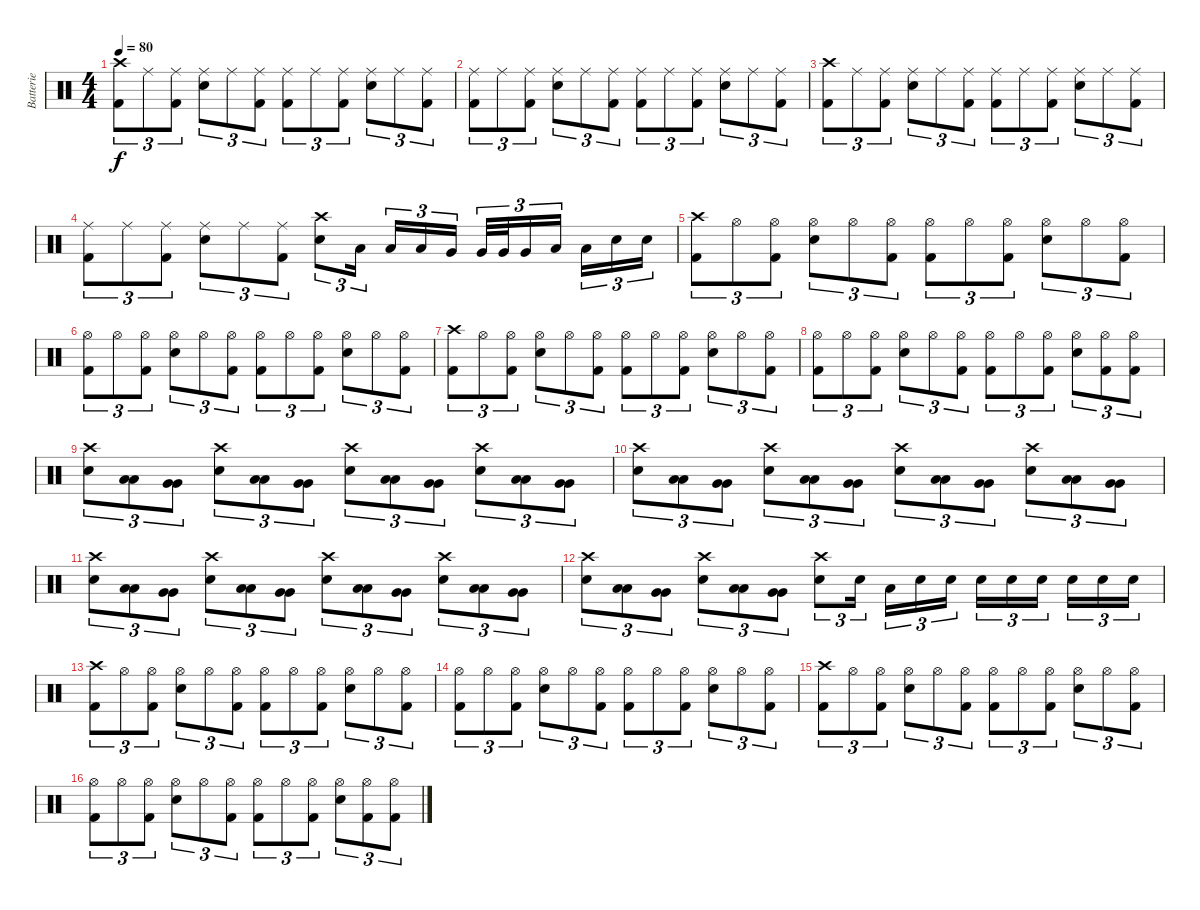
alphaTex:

\track ("Batterie" "Batterie") {instrument percussion}
\staff {score}
\articulation defaults
\ts (4 4)
\tempo 80
\clef neutral
\ks c
("Crash high (hit)" "Kick (hit) 2").8{tu (3 2) dy f} "Ride (middle)".8{tu (3 2)} ("Ride (middle)" "Kick (hit) 2").8{tu (3 2)} ("Ride (middle)" "Electric Snare (hit)").8{tu (3 2)} "Ride (middle)".8{tu (3 2)} ("Ride (middle)" "Kick (hit) 2").8{tu (3 2)} ("Ride (middle)" "Kick (hit) 2").8{tu (3 2)} "Ride (middle)".8{tu (3 2)} ("Ride (middle)" "Kick (hit) 2").8{tu (3 2)} ("Ride (middle)" "Electric Snare (hit)").8{tu (3 2)} "Ride (middle)".8{tu (3 2)} ("Ride (middle)" "Kick (hit) 2").8{tu (3 2)} |
("Ride (middle)" "Kick (hit) 2").8{tu (3 2)} "Ride (middle)".8{tu (3 2)} ("Ride (middle)" "Kick (hit) 2").8{tu (3 2)} ("Ride (middle)" "Electric Snare (hit)").8{tu (3 2)} "Ride (middle)".8{tu (3 2)} ("Ride (middle)" "Kick (hit) 2").8{tu (3 2)} ("Ride (middle)" "Kick (hit) 2").8{tu (3 2)} "Ride (middle)".8{tu (3 2)} ("Ride (middle)" "Kick (hit) 2").8{tu (3 2)} ("Ride (middle)" "Electric Snare (hit)").8{tu (3 2)} "Ride (middle)".8{tu (3 2)} ("Ride (middle)" "Kick (hit) 2").8{tu (3 2)} |
("Crash high (hit)" "Kick (hit) 2").8{tu (3 2)} "Ride (middle)".8{tu (3 2)} ("Ride (middle)" "Kick (hit) 2").8{tu (3 2)} ("Ride (middle)" "Electric Snare (hit)").8{tu (3 2)} "Ride (middle)".8{tu (3 2)} ("Ride (middle)" "Kick (hit) 2").8{tu (3 2)} ("Ride (middle)" "Kick (hit) 2").8{tu (3 2)} "Ride (middle)".8{tu (3 2)} ("Ride (middle)" "Kick (hit) 2").8{tu (3 2)} ("Ride (middle)" "Electric Snare (hit)").8{tu (3 2)} "Ride (middle)".8{tu (3 2)} ("Ride (middle)" "Kick (hit) 2").8{tu (3 2)} |
("Ride (middle)" "Kick (hit) 2").8{tu (3 2)} "Ride (middle)".8{tu (3 2)} ("Ride (middle)" "Kick (hit) 2").8{tu (3 2)} ("Ride (middle)" "Electric Snare (hit)").8{tu (3 2)} "Ride (middle)".8{tu (3 2)} ("Ride (middle)" "Kick (hit) 2").8{tu (3 2)} ("Crash high (hit)" "Electric Snare (hit)").8{tu (3 2)} "Low Tom (hit)".16{tu (3 2)} "Low Tom (hit)".16{tu (3 2)} "Low Tom (hit)".16{tu (3 2)} "Very Low Tom (hit)".16{tu (3 2)} "Very Low Tom (hit)".32{tu (3 2)} "Very Low Tom (hit)".32{tu (3 2)} "Very Low Tom (hit)".16{tu (3 2)} "Low Floor Tom (hit)".16{tu (3 2)} "Low Floor Tom (hit)".16{tu (3 2)} "Electric Snare (hit)".16{tu (3 2)} "Electric Snare (hit)".16{tu (3 2)} |
("Crash high (hit)" "Kick (hit) 2").8{tu (3 2)} "Hi-Hat (open)".8{tu (3 2)} ("Hi-Hat (open)" "Kick (hit) 2").8{tu (3 2)} ("Hi-Hat (open)" "Electric Snare (hit)").8{tu (3 2)} "Hi-Hat (open)".8{tu (3 2)} ("Hi-Hat (open)" "Kick (hit) 2").8{tu (3 2)} ("Hi-Hat (open)" "Kick (hit) 2").8{tu (3 2)} "Hi-Hat (open)".8{tu (3 2)} ("Hi-Hat (open)" "Kick (hit) 2").8{tu (3 2)} ("Hi-Hat (open)" "Electric Snare (hit)").8{tu (3 2)} "Hi-Hat (open)".8{tu (3 2)} ("Hi-Hat (open)" "Kick (hit) 2").8{tu (3 2)} |
("Hi-Hat (open)" "Kick (hit) 2").8{tu (3 2)} "Hi-Hat (open)".8{tu (3 2)} ("Hi-Hat (open)" "Kick (hit) 2").8{tu (3 2)} ("Hi-Hat (open)" "Electric Snare (hit)").8{tu (3 2)} "Hi-Hat (open)".8{tu (3 2)} ("Hi-Hat (open)" "Kick (hit) 2").8{tu (3 2)} ("Hi-Hat (open)" "Kick (hit) 2").8{tu (3 2)} "Hi-Hat (open)".8{tu (3 2)} ("Hi-Hat (open)" "Kick (hit) 2").8{tu (3 2)} ("Hi-Hat (open)" "Electric Snare (hit)").8{tu (3 2)} "Hi-Hat (open)".8{tu (3 2)} ("Hi-Hat (open)" "Kick (hit) 2").8{tu (3 2)} |
("Crash high (hit)" "Kick (hit) 2").8{tu (3 2)} "Hi-Hat (open)".8{tu (3 2)} ("Hi-Hat (open)" "Kick (hit) 2").8{tu (3 2)} ("Hi-Hat (open)" "Electric Snare (hit)").8{tu (3 2)} "Hi-Hat (open)".8{tu (3 2)} ("Hi-Hat (open)" "Kick (hit) 2").8{tu (3 2)} ("Hi-Hat (open)" "Kick (hit) 2").8{tu (3 2)} "Hi-Hat (open)".8{tu (3 2)} ("Hi-Hat (open)" "Kick (hit) 2").8{tu (3 2)} ("Hi-Hat (open)" "Electric Snare (hit)").8{tu (3 2)} "Hi-Hat (open)".8{tu (3 2)} ("Hi-Hat (open)" "Kick (hit) 2").8{tu (3 2)} |
("Hi-Hat (open)" "Kick (hit) 2").8{tu (3 2)} "Hi-Hat (open)".8{tu (3 2)} ("Hi-Hat (open)" "Kick (hit) 2").8{tu (3 2)} ("Hi-Hat (open)" "Electric Snare (hit)").8{tu (3 2)} "Hi-Hat (open)".8{tu (3 2)} ("Hi-Hat (open)" "Kick (hit) 2").8{tu (3 2)} ("Hi-Hat (open)" "Kick (hit) 2").8{tu (3 2)} "Hi-Hat (open)".8{tu (3 2)} ("Hi-Hat (open)" "Kick (hit) 2").8{tu (3 2)} ("Hi-Hat (open)" "Electric Snare (hit)").8{tu (3 2)} ("Hi-Hat (open)" "Kick (hit) 2").8{tu (3 2)} ("Hi-Hat (open)" "Kick (hit) 2").8{tu (3 2)} |
("Crash high (hit)" "Electric Snare (hit)").8{tu (3 2)} ("Low Tom (hit)" "Low Tom (hit)").8{tu (3 2) bu 60} ("Very Low Tom (hit)" "Very Low Tom (hit)").8{tu (3 2) bu 60} ("Crash high (hit)" "Electric Snare (hit)").8{tu (3 2)} ("Low Tom (hit)" "Low Tom (hit)").8{tu (3 2) bu 60} ("Very Low Tom (hit)" "Very Low Tom (hit)").8{tu (3 2) bu 60} ("Crash high (hit)" "Electric Snare (hit)").8{tu (3 2)} ("Low Tom (hit)" "Low Tom (hit)").8{tu (3 2) bu 60} ("Very Low Tom (hit)" "Very Low Tom (hit)").8{tu (3 2) bu 60} ("Crash high (hit)" "Electric Snare (hit)").8{tu (3 2)} ("Low Tom (hit)" "Low Tom (hit)").8{tu (3 2) bu 60} ("Very Low Tom (hit)" "Very Low Tom (hit)").8{tu (3 2) bu 60} |
("Crash high (hit)" "Electric Snare (hit)").8{tu (3 2)} ("Low Tom (hit)" "Low Tom (hit)").8{tu (3 2) bu 60} ("Very Low Tom (hit)" "Very Low Tom (hit)").8{tu (3 2) bu 60} ("Crash high (hit)" "Electric Snare (hit)").8{tu (3 2)} ("Low Tom (hit)" "Low Tom (hit)").8{tu (3 2) bu 60} ("Very Low Tom (hit)" "Very Low Tom (hit)").8{tu (3 2) bu 60} ("Crash high (hit)" "Electric Snare (hit)").8{tu (3 2)} ("Low Tom (hit)" "Low Tom (hit)").8{tu (3 2) bu 60} ("Very Low Tom (hit)" "Very Low Tom (hit)").8{tu (3 2) bu 60} ("Crash high (hit)" "Electric Snare (hit)").8{tu (3 2)} ("Low Tom (hit)" "Low Tom (hit)").8{tu (3 2) bu 60} ("Very Low Tom (hit)" "Very Low Tom (hit)").8{tu (3 2) bu 60} |
("Crash high (hit)" "Electric Snare (hit)").8{tu (3 2)} ("Low Tom (hit)" "Low Tom (hit)").8{tu (3 2) bu 60} ("Very Low Tom (hit)" "Very Low Tom (hit)").8{tu (3 2) bu 60} ("Crash high (hit)" "Electric Snare (hit)").8{tu (3 2)} ("Low Tom (hit)" "Low Tom (hit)").8{tu (3 2) bu 60} ("Very Low Tom (hit)" "Very Low Tom (hit)").8{tu (3 2) bu 60} ("Crash high (hit)" "Electric Snare (hit)").8{tu (3 2)} ("Low Tom (hit)" "Low Tom (hit)").8{tu (3 2) bu 60} ("Very Low Tom (hit)" "Very Low Tom (hit)").8{tu (3 2) bu 60} ("Crash high (hit)" "Electric Snare (hit)").8{tu (3 2)} ("Low Tom (hit)" "Low Tom (hit)").8{tu (3 2) bu 60} ("Very Low Tom (hit)" "Very Low Tom (hit)").8{tu (3 2) bu 60} |
("Crash high (hit)" "Electric Snare (hit)").8{tu (3 2)} ("Low Tom (hit)" "Low Tom (hit)").8{tu (3 2) bu 60} ("Very Low Tom (hit)" "Very Low Tom (hit)").8{tu (3 2) bu 60} ("Crash high (hit)" "Electric Snare (hit)").8{tu (3 2)} ("Low Tom (hit)" "Low Tom (hit)").8{tu (3 2) bu 60} ("Very Low Tom (hit)" "Very Low Tom (hit)").8{tu (3 2) bu 60} ("Crash high (hit)" "Electric Snare (hit)").8{tu (3 2)} "Electric Snare (hit)".16{tu (3 2)} "Low Tom (hit)".16{tu (3 2)} "Electric Snare (hit)".16{tu (3 2)} "Electric Snare (hit)".16{tu (3 2)} "Electric Snare (hit)".16{tu (3 2)} "Electric Snare (hit)".16{tu (3 2)} "Electric Snare (hit)".16{tu (3 2)} "Electric Snare (hit)".16{tu (3 2)} "Electric Snare (hit)".16{tu (3 2)} "Electric Snare (hit)".16{tu (3 2)} |
("Crash high (hit)" "Kick (hit) 2").8{tu (3 2)} "Hi-Hat (open)".8{tu (3 2)} ("Hi-Hat (open)" "Kick (hit) 2").8{tu (3 2)} ("Hi-Hat (open)" "Electric Snare (hit)").8{tu (3 2)} "Hi-Hat (open)".8{tu (3 2)} ("Hi-Hat (open)" "Kick (hit) 2").8{tu (3 2)} ("Hi-Hat (open)" "Kick (hit) 2").8{tu (3 2)} "Hi-Hat (open)".8{tu (3 2)} ("Hi-Hat (open)" "Kick (hit) 2").8{tu (3 2)} ("Hi-Hat (open)" "Electric Snare (hit)").8{tu (3 2)} "Hi-Hat (open)".8{tu (3 2)} ("Hi-Hat (open)" "Kick (hit) 2").8{tu (3 2)} |
("Hi-Hat (open)" "Kick (hit) 2").8{tu (3 2)} "Hi-Hat (open)".8{tu (3 2)} ("Hi-Hat (open)" "Kick (hit) 2").8{tu (3 2)} ("Hi-Hat (open)" "Electric Snare (hit)").8{tu (3 2)} "Hi-Hat (open)".8{tu (3 2)} ("Hi-Hat (open)" "Kick (hit) 2").8{tu (3 2)} ("Hi-Hat (open)" "Kick (hit) 2").8{tu (3 2)} "Hi-Hat (open)".8{tu (3 2)} ("Hi-Hat (open)" "Kick (hit) 2").8{tu (3 2)} ("Hi-Hat (open)" "Electric Snare (hit)").8{tu (3 2)} "Hi-Hat (open)".8{tu (3 2)} ("Hi-Hat (open)" "Kick (hit) 2").8{tu (3 2)} |
("Crash high (hit)" "Kick (hit) 2").8{tu (3 2)} "Hi-Hat (open)".8{tu (3 2)} ("Hi-Hat (open)" "Kick (hit) 2").8{tu (3 2)} ("Hi-Hat (open)" "Electric Snare (hit)").8{tu (3 2)} "Hi-Hat (open)".8{tu (3 2)} ("Hi-Hat (open)" "Kick (hit) 2").8{tu (3 2)} ("Hi-Hat (open)" "Kick (hit) 2").8{tu (3 2)} "Hi-Hat (open)".8{tu (3 2)} ("Hi-Hat (open)" "Kick (hit) 2").8{tu (3 2)} ("Hi-Hat (open)" "Electric Snare (hit)").8{tu (3 2)} "Hi-Hat (open)".8{tu (3 2)} ("Hi-Hat (open)" "Kick (hit) 2").8{tu (3 2)} |
("Hi-Hat (open)" "Kick (hit) 2").8{tu (3 2)} "Hi-Hat (open)".8{tu (3 2)} ("Hi-Hat (open)" "Kick (hit) 2").8{tu (3 2)} ("Hi-Hat (open)" "Electric Snare (hit)").8{tu (3 2)} "Hi-Hat (open)".8{tu (3 2)} ("Hi-Hat (open)" "Kick (hit) 2").8{tu (3 2)} ("Hi-Hat (open)" "Kick (hit) 2").8{tu (3 2)} "Hi-Hat (open)".8{tu (3 2)} ("Hi-Hat (open)" "Kick (hit) 2").8{tu (3 2)} ("Hi-Hat (open)" "Electric Snare (hit)").8{tu (3 2)} ("Hi-Hat (open)" "Kick (hit) 2").8{tu (3 2)} ("Hi-Hat (open)" "Kick (hit) 2").8{tu (3 2)}
